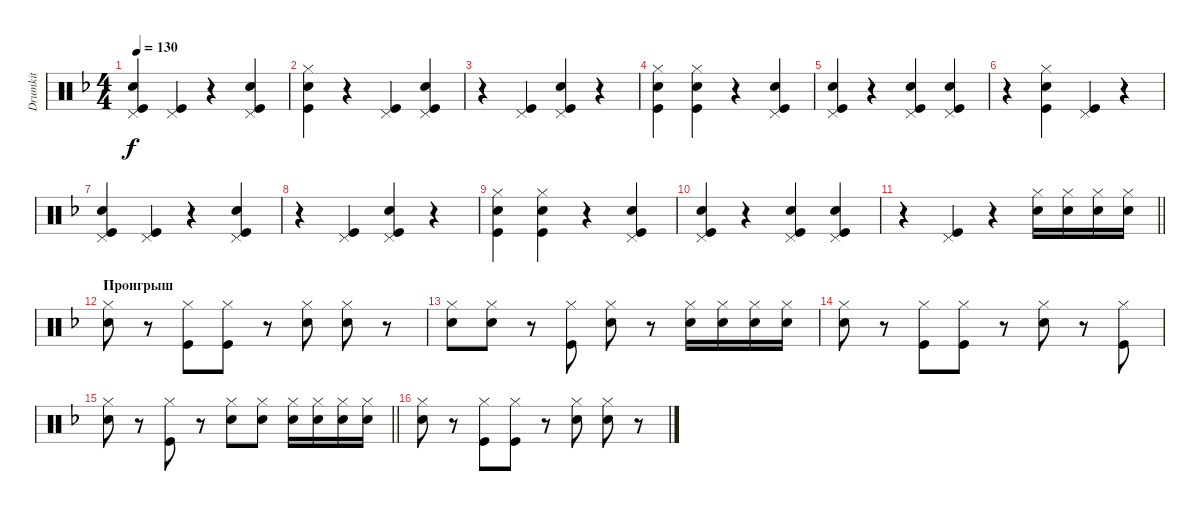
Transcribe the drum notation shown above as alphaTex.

\track ("Drumkit" "Drumkit") {instrument percussion}
\staff {score}
\articulation defaults
\ts (4 4)
\tempo 130
\clef neutral
\ks f
("Kick (hit)" "Snare (hit) 2" "Pedal Hi-Hat (hit)").4{dy f} ("Kick (hit)" "Pedal Hi-Hat (hit)").4 r.4 ("Kick (hit)" "Snare (hit) 2" "Pedal Hi-Hat (hit)").4 |
("Kick (hit)" "Snare (hit) 2" "Hi-Hat (closed)").4 r.4 ("Kick (hit)" "Pedal Hi-Hat (hit)").4 ("Kick (hit)" "Snare (hit) 2" "Pedal Hi-Hat (hit)").4 |
r.4 ("Kick (hit)" "Pedal Hi-Hat (hit)").4 ("Kick (hit)" "Snare (hit) 2" "Pedal Hi-Hat (hit)").4 r.4 |
("Kick (hit)" "Snare (hit) 2" "Hi-Hat (closed)").4 ("Kick (hit)" "Snare (hit) 2" "Hi-Hat (closed)").4 r.4 ("Kick (hit)" "Snare (hit) 2" "Pedal Hi-Hat (hit)").4 |
("Kick (hit)" "Snare (hit) 2" "Pedal Hi-Hat (hit)").4 r.4 ("Kick (hit)" "Snare (hit) 2" "Pedal Hi-Hat (hit)").4 ("Kick (hit)" "Snare (hit) 2" "Pedal Hi-Hat (hit)").4 |
r.4 ("Kick (hit)" "Snare (hit) 2" "Hi-Hat (closed)").4 ("Kick (hit)" "Pedal Hi-Hat (hit)").4 r.4 |
("Kick (hit)" "Snare (hit) 2" "Pedal Hi-Hat (hit)").4 ("Kick (hit)" "Pedal Hi-Hat (hit)").4 r.4 ("Kick (hit)" "Snare (hit) 2" "Pedal Hi-Hat (hit)").4 |
r.4 ("Kick (hit)" "Pedal Hi-Hat (hit)").4 ("Kick (hit)" "Snare (hit) 2" "Pedal Hi-Hat (hit)").4 r.4 |
("Kick (hit)" "Snare (hit) 2" "Hi-Hat (closed)").4 ("Kick (hit)" "Snare (hit) 2" "Hi-Hat (closed)").4 r.4 ("Kick (hit)" "Snare (hit) 2" "Pedal Hi-Hat (hit)").4 |
("Kick (hit)" "Snare (hit) 2" "Pedal Hi-Hat (hit)").4 r.4 ("Kick (hit)" "Snare (hit) 2" "Pedal Hi-Hat (hit)").4 ("Kick (hit)" "Snare (hit) 2" "Pedal Hi-Hat (hit)").4 |
\barLineRight lightlight
r.4 ("Kick (hit)" "Pedal Hi-Hat (hit)").4 r.4 ("Snare (hit) 2" "Hi-Hat (closed)").16 ("Snare (hit) 2" "Hi-Hat (closed)").16 ("Snare (hit) 2" "Hi-Hat (closed)").16 ("Snare (hit) 2" "Hi-Hat (closed)").16 |
\section ("" "Проигрыш")
("Hi-Hat (closed)" "Snare (hit) 2").8 r.8 ("Hi-Hat (closed)" "Kick (hit)").8 ("Hi-Hat (closed)" "Kick (hit)").8 r.8 ("Hi-Hat (closed)" "Snare (hit) 2").8 ("Hi-Hat (closed)" "Snare (hit) 2").8 r.8 |
("Hi-Hat (closed)" "Snare (hit) 2").8 ("Hi-Hat (closed)" "Snare (hit) 2").8 r.8 ("Hi-Hat (closed)" "Kick (hit)").8 ("Hi-Hat (closed)" "Snare (hit) 2").8 r.8 ("Snare (hit) 2" "Hi-Hat (closed)").16 ("Snare (hit) 2" "Hi-Hat (closed)").16 ("Snare (hit) 2" "Hi-Hat (closed)").16 ("Snare (hit) 2" "Hi-Hat (closed)").16 |
("Hi-Hat (closed)" "Snare (hit) 2").8 r.8 ("Hi-Hat (closed)" "Kick (hit)").8 ("Hi-Hat (closed)" "Kick (hit)").8 r.8 ("Hi-Hat (closed)" "Snare (hit) 2").8 r.8 ("Hi-Hat (closed)" "Kick (hit)").8 |
\barLineRight lightlight
("Hi-Hat (closed)" "Snare (hit) 2").8 r.8 ("Hi-Hat (closed)" "Kick (hit)").8 r.8 ("Hi-Hat (closed)" "Snare (hit) 2").8 ("Hi-Hat (closed)" "Snare (hit) 2").8 ("Hi-Hat (closed)" "Snare (hit) 2").16 ("Hi-Hat (closed)" "Snare (hit) 2").16 ("Hi-Hat (closed)" "Snare (hit) 2").16 ("Hi-Hat (closed)" "Snare (hit) 2").16 |
("Hi-Hat (closed)" "Snare (hit) 2").8 r.8 ("Hi-Hat (closed)" "Kick (hit)").8 ("Hi-Hat (closed)" "Kick (hit)").8 r.8 ("Hi-Hat (closed)" "Snare (hit) 2").8 ("Hi-Hat (closed)" "Snare (hit) 2").8 r.8
